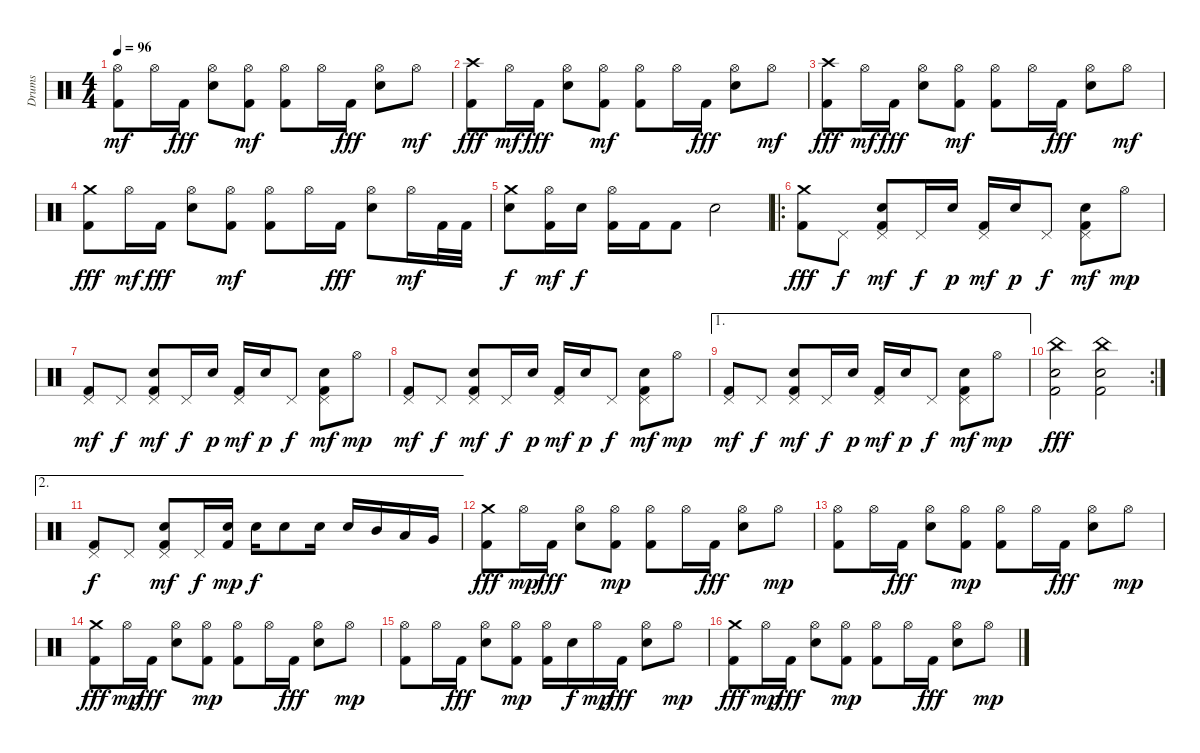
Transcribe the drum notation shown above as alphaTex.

\track ("Drums" "Drums") {instrument percussion}
\staff {score}
\articulation defaults
\ts (4 4)
\tempo 96
\clef neutral
\ks c
("Kick (hit) 2" "Hi-Hat (open)").8{dy mf} "Hi-Hat (open)".16 "Kick (hit) 2".16{dy fff} ("Hi-Hat (open)" "Snare (hit) 2").8 ("Kick (hit) 2" "Hi-Hat (open)").8{dy mf} ("Kick (hit) 2" "Hi-Hat (open)").8 "Hi-Hat (open)".16 "Kick (hit) 2".16{dy fff} ("Hi-Hat (open)" "Snare (hit) 2").8 "Hi-Hat (open)".8{dy mf} |
("Kick (hit) 2" "Crash high (hit)").8{dy fff} "Hi-Hat (open)".16{dy mf} "Kick (hit) 2".16{dy fff} ("Hi-Hat (open)" "Snare (hit) 2").8 ("Kick (hit) 2" "Hi-Hat (open)").8{dy mf} ("Kick (hit) 2" "Hi-Hat (open)").8 "Hi-Hat (open)".16 "Kick (hit) 2".16{dy fff} ("Hi-Hat (open)" "Snare (hit) 2").8 "Hi-Hat (open)".8{dy mf} |
("Kick (hit) 2" "Crash high (hit)").8{dy fff} "Hi-Hat (open)".16{dy mf} "Kick (hit) 2".16{dy fff} ("Hi-Hat (open)" "Snare (hit) 2").8 ("Kick (hit) 2" "Hi-Hat (open)").8{dy mf} ("Kick (hit) 2" "Hi-Hat (open)").8 "Hi-Hat (open)".16 "Kick (hit) 2".16{dy fff} ("Hi-Hat (open)" "Snare (hit) 2").8 "Hi-Hat (open)".8{dy mf} |
("Kick (hit) 2" "Crash medium (hit)").8{dy fff} "Hi-Hat (open)".16{dy mf} "Kick (hit) 2".16{dy fff} ("Hi-Hat (open)" "Snare (hit) 2").8 ("Kick (hit) 2" "Hi-Hat (open)").8{dy mf} ("Kick (hit) 2" "Hi-Hat (open)").8 "Hi-Hat (open)".16 "Kick (hit) 2".16{dy fff} ("Hi-Hat (open)" "Snare (hit) 2").8 "Hi-Hat (open)".16{dy mf} "Kick (hit) 2".32 "Kick (hit) 2".32 |
("Crash medium (hit)" "Snare (hit) 2").8{dy f} ("Kick (hit) 2" "Hi-Hat (open)").16{dy mf} "Snare (hit) 2".16{dy f} ("Kick (hit) 2" "Hi-Hat (open)").16 "Kick (hit) 2".16 "Kick (hit) 2".8 "Snare (hit) 2".2 |
\ro
("Kick (hit) 2" "Crash medium (hit)").8{dy fff} "Pedal Hi-Hat (hit)".8{dy f} ("Kick (hit) 2" "Pedal Hi-Hat (hit)" "Electric Snare (hit)").8{dy mf} "Pedal Hi-Hat (hit)".16{dy f} "Electric Snare (hit)".16{dy p} ("Kick (hit) 2" "Pedal Hi-Hat (hit)").16{dy mf} "Electric Snare (hit)".16{dy p} "Pedal Hi-Hat (hit)".8{dy f} ("Kick (hit) 2" "Pedal Hi-Hat (hit)" "Electric Snare (hit)").8{dy mf} "Hi-Hat (open)".8{dy mp} |
("Kick (hit) 2" "Pedal Hi-Hat (hit)").8{dy mf} "Pedal Hi-Hat (hit)".8{dy f} ("Kick (hit) 2" "Pedal Hi-Hat (hit)" "Electric Snare (hit)").8{dy mf} "Pedal Hi-Hat (hit)".16{dy f} "Electric Snare (hit)".16{dy p} ("Kick (hit) 2" "Pedal Hi-Hat (hit)").16{dy mf} "Electric Snare (hit)".16{dy p} "Pedal Hi-Hat (hit)".8{dy f} ("Kick (hit) 2" "Pedal Hi-Hat (hit)" "Electric Snare (hit)").8{dy mf} "Hi-Hat (open)".8{dy mp} |
("Kick (hit) 2" "Pedal Hi-Hat (hit)").8{dy mf} "Pedal Hi-Hat (hit)".8{dy f} ("Kick (hit) 2" "Pedal Hi-Hat (hit)" "Electric Snare (hit)").8{dy mf} "Pedal Hi-Hat (hit)".16{dy f} "Electric Snare (hit)".16{dy p} ("Kick (hit) 2" "Pedal Hi-Hat (hit)").16{dy mf} "Electric Snare (hit)".16{dy p} "Pedal Hi-Hat (hit)".8{dy f} ("Kick (hit) 2" "Pedal Hi-Hat (hit)" "Electric Snare (hit)").8{dy mf} "Hi-Hat (open)".8{dy mp} |
\ae 1
("Kick (hit) 2" "Pedal Hi-Hat (hit)").8{dy mf} "Pedal Hi-Hat (hit)".8{dy f} ("Kick (hit) 2" "Pedal Hi-Hat (hit)" "Electric Snare (hit)").8{dy mf} "Pedal Hi-Hat (hit)".16{dy f} "Electric Snare (hit)".16{dy p} ("Kick (hit) 2" "Pedal Hi-Hat (hit)").16{dy mf} "Electric Snare (hit)".16{dy p} "Pedal Hi-Hat (hit)".8{dy f} ("Kick (hit) 2" "Pedal Hi-Hat (hit)" "Electric Snare (hit)").8{dy mf} "Hi-Hat (open)".8{dy mp} |
\rc 2
("Kick (hit) 2" "China (hit)" "Electric Snare (hit)").2{dy fff} ("Kick (hit) 2" "China (hit)" "Electric Snare (hit)").2 |
\ae 2
("Kick (hit) 2" "Pedal Hi-Hat (hit)").8{dy f} "Pedal Hi-Hat (hit)".8 ("Kick (hit) 2" "Pedal Hi-Hat (hit)" "Electric Snare (hit)").8{dy mf} "Pedal Hi-Hat (hit)".16{dy f} ("Kick (hit) 2" "Electric Snare (hit)").16{dy mp} "Snare (hit) 2".16{dy f} "Snare (hit) 2".8 "Snare (hit) 2".16 "Snare (hit) 2".16 "Mid Tom (hit)".16 "Low Tom (hit)".16 "Very Low Tom (hit)".16 |
("Kick (hit) 2" "Crash medium (hit)").8{dy fff} "Hi-Hat (open)".16{dy mp} "Kick (hit) 2".16{dy fff} ("Hi-Hat (open)" "Snare (hit) 2").8 ("Kick (hit) 2" "Hi-Hat (open)").8{dy mp} ("Kick (hit) 2" "Hi-Hat (open)").8 "Hi-Hat (open)".16 "Kick (hit) 2".16{dy fff} ("Hi-Hat (open)" "Snare (hit) 2").8 "Hi-Hat (open)".8{dy mp} |
("Kick (hit) 2" "Hi-Hat (open)").8 "Hi-Hat (open)".16 "Kick (hit) 2".16{dy fff} ("Hi-Hat (open)" "Snare (hit) 2").8 ("Kick (hit) 2" "Hi-Hat (open)").8{dy mp} ("Kick (hit) 2" "Hi-Hat (open)").8 "Hi-Hat (open)".16 "Kick (hit) 2".16{dy fff} ("Hi-Hat (open)" "Snare (hit) 2").8 "Hi-Hat (open)".8{dy mp} |
("Kick (hit) 2" "Crash medium (hit)").8{dy fff} "Hi-Hat (open)".16{dy mp} "Kick (hit) 2".16{dy fff} ("Hi-Hat (open)" "Snare (hit) 2").8 ("Kick (hit) 2" "Hi-Hat (open)").8{dy mp} ("Kick (hit) 2" "Hi-Hat (open)").8 "Hi-Hat (open)".16 "Kick (hit) 2".16{dy fff} ("Hi-Hat (open)" "Snare (hit) 2").8 "Hi-Hat (open)".8{dy mp} |
("Kick (hit) 2" "Hi-Hat (open)").8 "Hi-Hat (open)".16 "Kick (hit) 2".16{dy fff} ("Hi-Hat (open)" "Snare (hit) 2").8 ("Kick (hit) 2" "Hi-Hat (open)").8{dy mp} ("Kick (hit) 2" "Hi-Hat (open)").16 "Snare (hit) 2".16{dy f} "Hi-Hat (open)".16{dy mp} "Kick (hit) 2".16{dy fff} ("Hi-Hat (open)" "Snare (hit) 2").8 "Hi-Hat (open)".8{dy mp} |
("Kick (hit) 2" "Crash medium (hit)").8{dy fff} "Hi-Hat (open)".16{dy mp} "Kick (hit) 2".16{dy fff} ("Hi-Hat (open)" "Snare (hit) 2").8 ("Kick (hit) 2" "Hi-Hat (open)").8{dy mp} ("Kick (hit) 2" "Hi-Hat (open)").8 "Hi-Hat (open)".16 "Kick (hit) 2".16{dy fff} ("Hi-Hat (open)" "Snare (hit) 2").8 "Hi-Hat (open)".8{dy mp}
